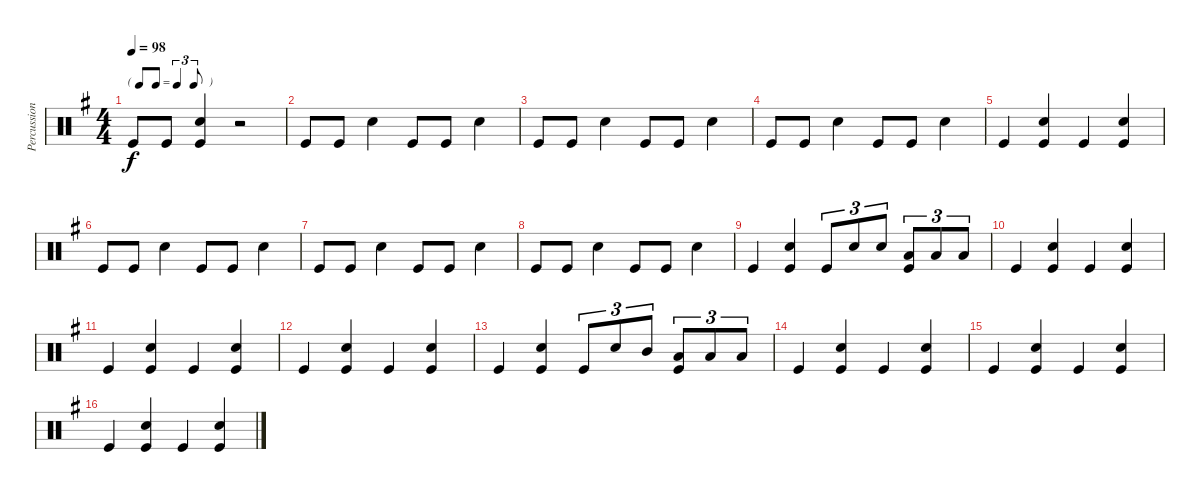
\track ("Percussion" "Percussion") {instrument percussion}
\staff {score}
\articulation defaults
\ts (4 4)
\tf triplet8th
\tempo 98
\clef neutral
\ks g "Kick (hit)".8{dy f} "Kick (hit)".8
("Snare (hit) 2" "Kick (hit)").4 r.2 |
"Kick (hit)".8 "Kick (hit)".8 "Snare (hit) 2".4 "Kick (hit)".8 "Kick (hit)".8 "Snare (hit) 2".4 |
"Kick (hit)".8 "Kick (hit)".8 "Snare (hit) 2".4 "Kick (hit)".8 "Kick (hit)".8 "Snare (hit) 2".4 |
"Kick (hit)".8 "Kick (hit)".8 "Snare (hit) 2".4 "Kick (hit)".8 "Kick (hit)".8 "Snare (hit) 2".4 |
"Kick (hit)".4 ("Snare (hit) 2" "Kick (hit)").4 "Kick (hit)".4 ("Snare (hit) 2" "Kick (hit)").4 |
"Kick (hit)".8 "Kick (hit)".8 "Snare (hit) 2".4 "Kick (hit)".8 "Kick (hit)".8 "Snare (hit) 2".4 |
"Kick (hit)".8 "Kick (hit)".8 "Snare (hit) 2".4 "Kick (hit)".8 "Kick (hit)".8 "Snare (hit) 2".4 |
"Kick (hit)".8 "Kick (hit)".8 "Snare (hit) 2".4 "Kick (hit)".8 "Kick (hit)".8 "Snare (hit) 2".4 |
"Kick (hit)".4 ("Snare (hit) 2" "Kick (hit)").4 "Kick (hit)".8{tu (3 2)} "Snare (hit) 2".8{tu (3 2)} "Snare (hit) 2".8{tu (3 2)} ("Low Tom (hit)" "Kick (hit)").8{tu (3 2)} "Low Tom (hit)".8{tu (3 2)} "Low Tom (hit)".8{tu (3 2)} |
"Kick (hit)".4 ("Snare (hit) 2" "Kick (hit)").4 "Kick (hit)".4 ("Snare (hit) 2" "Kick (hit)").4 |
"Kick (hit)".4 ("Snare (hit) 2" "Kick (hit)").4 "Kick (hit)".4 ("Snare (hit) 2" "Kick (hit)").4 |
"Kick (hit)".4 ("Snare (hit) 2" "Kick (hit)").4 "Kick (hit)".4 ("Snare (hit) 2" "Kick (hit)").4 |
"Kick (hit)".4 ("Snare (hit) 2" "Kick (hit)").4 "Kick (hit)".8{tu (3 2)} "Snare (hit) 2".8{tu (3 2)} "Mid Tom (hit)".8{tu (3 2)} ("Low Tom (hit)" "Kick (hit)").8{tu (3 2)} "Low Tom (hit)".8{tu (3 2)} "Low Tom (hit)".8{tu (3 2)} |
"Kick (hit)".4 ("Snare (hit) 2" "Kick (hit)").4 "Kick (hit)".4 ("Snare (hit) 2" "Kick (hit)").4 |
"Kick (hit)".4 ("Snare (hit) 2" "Kick (hit)").4 "Kick (hit)".4 ("Snare (hit) 2" "Kick (hit)").4 |
"Kick (hit)".4 ("Snare (hit) 2" "Kick (hit)").4 "Kick (hit)".4 ("Snare (hit) 2" "Kick (hit)").4
